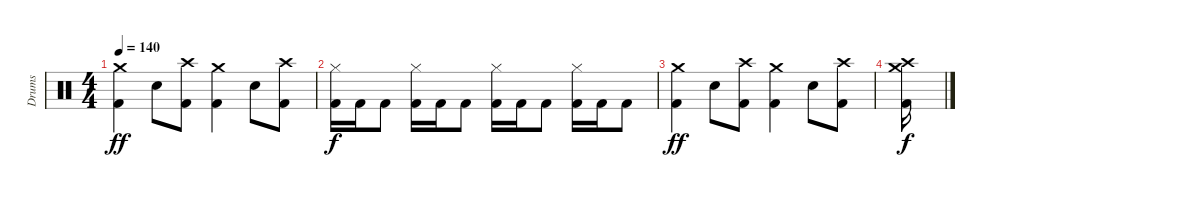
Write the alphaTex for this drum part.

\track ("Drums" "Drums") {instrument percussion}
\staff {score}
\articulation defaults
\ts (4 4)
\tempo 140
\clef neutral
\ks c
("Crash medium (hit)" "Kick (hit) 2").4{dy ff} "Electric Snare (hit)".8 ("Crash high (hit)" "Kick (hit) 2").8 ("Crash medium (hit)" "Kick (hit) 2").4 "Electric Snare (hit)".8 ("Crash high (hit)" "Kick (hit) 2").8 |
("Hi-Hat (closed)" "Kick (hit) 2").16{dy f} "Kick (hit) 2".16 "Kick (hit) 2".8 ("Hi-Hat (closed)" "Kick (hit) 2").16 "Kick (hit) 2".16 "Kick (hit) 2".8 ("Hi-Hat (closed)" "Kick (hit) 2").16 "Kick (hit) 2".16 "Kick (hit) 2".8 ("Hi-Hat (closed)" "Kick (hit) 2").16 "Kick (hit) 2".16 "Kick (hit) 2".8 |
("Crash medium (hit)" "Kick (hit) 2").4{dy ff} "Electric Snare (hit)".8 ("Crash high (hit)" "Kick (hit) 2").8 ("Crash medium (hit)" "Kick (hit) 2").4 "Electric Snare (hit)".8 ("Crash high (hit)" "Kick (hit) 2").8 |
("Crash medium (hit)" "Crash high (hit)" "Kick (hit) 2").16{dy f}
